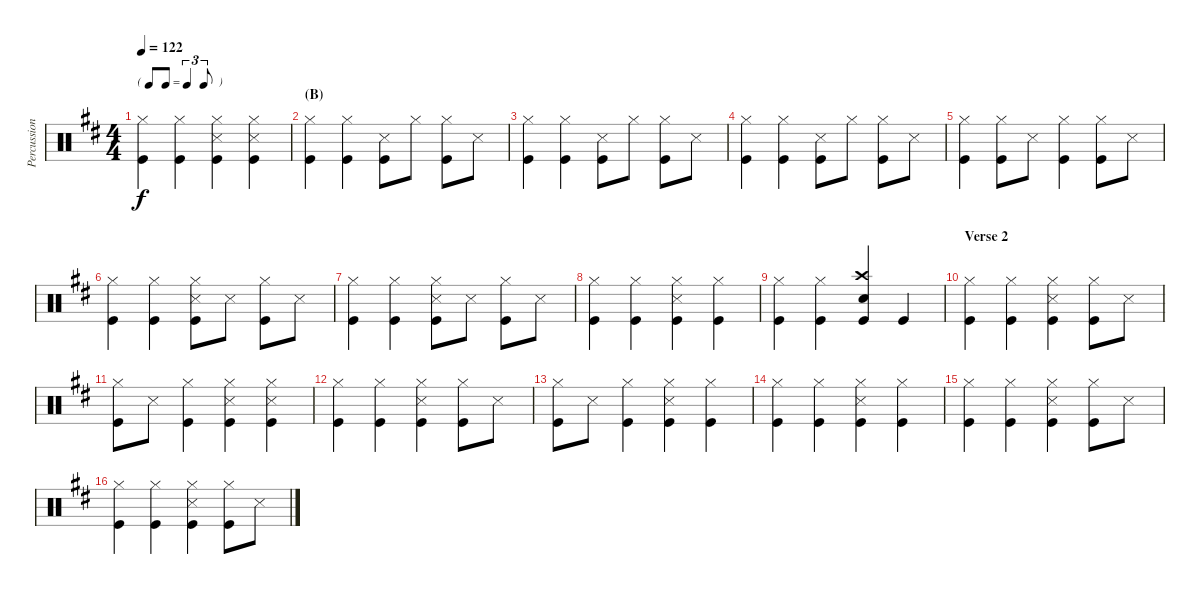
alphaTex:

\track ("Percussion" "Percussion") {instrument percussion}
\staff {score}
\articulation defaults
\ts (4 4)
\tf triplet8th
\tempo 122
\clef neutral
\ks d
("Hi-Hat (closed)" "Kick (hit)").4{dy f} ("Hi-Hat (closed)" "Kick (hit)").4 ("Hi-Hat (closed)" "Snare (side stick) 3" "Kick (hit)").4 ("Hi-Hat (closed)" "Snare (side stick) 3" "Kick (hit)").4 |
\section ("" "(B)")
("Hi-Hat (closed)" "Kick (hit)").4 ("Hi-Hat (closed)" "Kick (hit)").4 ("Snare (side stick) 3" "Kick (hit)").8 "Hi-Hat (closed)".8 ("Hi-Hat (closed)" "Kick (hit)").8 "Snare (side stick) 3".8 |
("Hi-Hat (closed)" "Kick (hit)").4 ("Hi-Hat (closed)" "Kick (hit)").4 ("Snare (side stick) 3" "Kick (hit)").8 "Hi-Hat (closed)".8 ("Hi-Hat (closed)" "Kick (hit)").8 "Snare (side stick) 3".8 |
("Hi-Hat (closed)" "Kick (hit)").4 ("Hi-Hat (closed)" "Kick (hit)").4 ("Snare (side stick) 3" "Kick (hit)").8 "Hi-Hat (closed)".8 ("Hi-Hat (closed)" "Kick (hit)").8 "Snare (side stick) 3".8 |
("Hi-Hat (closed)" "Kick (hit)").4 ("Hi-Hat (closed)" "Kick (hit)").8 "Snare (side stick) 3".8 ("Hi-Hat (closed)" "Kick (hit)").4 ("Hi-Hat (closed)" "Kick (hit)").8 "Snare (side stick) 3".8 |
("Hi-Hat (closed)" "Kick (hit)").4 ("Hi-Hat (closed)" "Kick (hit)").4 ("Hi-Hat (closed)" "Snare (side stick) 3" "Kick (hit)").8 "Snare (side stick) 3".8 ("Hi-Hat (closed)" "Kick (hit)").8 "Snare (side stick) 3".8 |
("Hi-Hat (closed)" "Kick (hit)").4 ("Hi-Hat (closed)" "Kick (hit)").4 ("Hi-Hat (closed)" "Snare (side stick) 3" "Kick (hit)").8 "Snare (side stick) 3".8 ("Hi-Hat (closed)" "Kick (hit)").8 "Snare (side stick) 3".8 |
("Hi-Hat (closed)" "Kick (hit)").4 ("Hi-Hat (closed)" "Kick (hit)").4 ("Hi-Hat (closed)" "Snare (side stick) 3" "Kick (hit)").4 ("Hi-Hat (closed)" "Kick (hit)").4 |
("Hi-Hat (closed)" "Kick (hit)").4 ("Hi-Hat (closed)" "Kick (hit)").4 ("Crash high (hit)" "Snare (hit) 2" "Kick (hit)").4 "Kick (hit)".4 |
\section ("" "Verse 2")
("Hi-Hat (closed)" "Kick (hit)").4 ("Hi-Hat (closed)" "Kick (hit)").4 ("Hi-Hat (closed)" "Snare (side stick) 3" "Kick (hit)").4 ("Hi-Hat (closed)" "Kick (hit)").8 "Snare (side stick) 3".8 |
("Hi-Hat (closed)" "Kick (hit)").8 "Snare (side stick) 3".8 ("Hi-Hat (closed)" "Kick (hit)").4 ("Hi-Hat (closed)" "Snare (side stick) 3" "Kick (hit)").4 ("Hi-Hat (closed)" "Snare (side stick) 3" "Kick (hit)").4 |
("Hi-Hat (closed)" "Kick (hit)").4 ("Hi-Hat (closed)" "Kick (hit)").4 ("Hi-Hat (closed)" "Snare (side stick) 3" "Kick (hit)").4 ("Hi-Hat (closed)" "Kick (hit)").8 "Snare (side stick) 3".8 |
("Hi-Hat (closed)" "Kick (hit)").8 "Snare (side stick) 3".8 ("Hi-Hat (closed)" "Kick (hit)").4 ("Hi-Hat (closed)" "Snare (side stick) 3" "Kick (hit)").4 ("Hi-Hat (closed)" "Kick (hit)").4 |
("Hi-Hat (closed)" "Kick (hit)").4 ("Hi-Hat (closed)" "Kick (hit)").4 ("Hi-Hat (closed)" "Snare (side stick) 3" "Kick (hit)").4 ("Hi-Hat (closed)" "Kick (hit)").4 |
("Hi-Hat (closed)" "Kick (hit)").4 ("Hi-Hat (closed)" "Kick (hit)").4 ("Hi-Hat (closed)" "Snare (side stick) 3" "Kick (hit)").4 ("Hi-Hat (closed)" "Kick (hit)").8 "Snare (side stick) 3".8 |
("Hi-Hat (closed)" "Kick (hit)").4 ("Hi-Hat (closed)" "Kick (hit)").4 ("Hi-Hat (closed)" "Snare (side stick) 3" "Kick (hit)").4 ("Hi-Hat (closed)" "Kick (hit)").8 "Snare (side stick) 3".8
